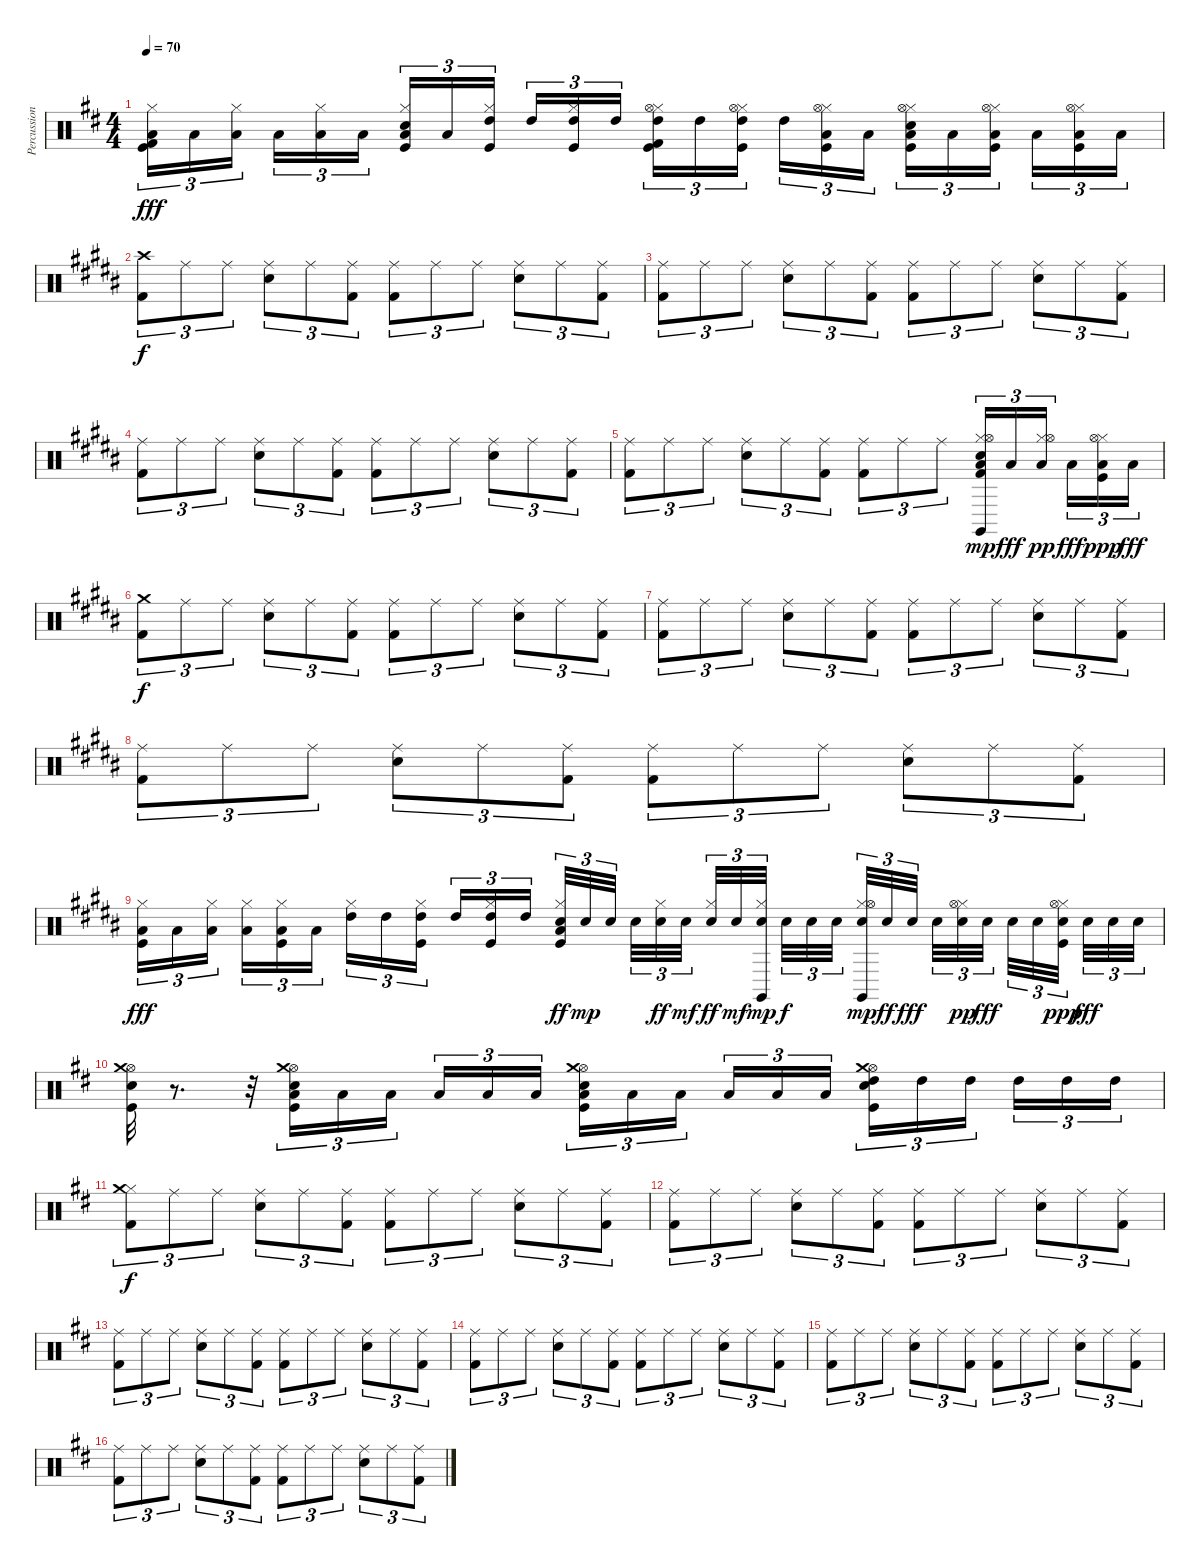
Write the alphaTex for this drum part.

\track ("Percussion" "Percussion") {instrument percussion}
\staff {score}
\articulation defaults
\ts (4 4)
\tempo 70
\clef neutral
\ks bminor
("Kick (hit)" "Low Floor Tom (hit)" "Hi-Hat (closed)" "Kick (hit) 2").16{tu (3 2) dy fff} "Low Floor Tom (hit)".16{tu (3 2)} ("Low Floor Tom (hit)" "Hi-Hat (closed)").16{tu (3 2) beam splitsecondary} "Low Floor Tom (hit)".16{tu (3 2)} ("Hi-Hat (closed)" "Low Tom (hit)").16{tu (3 2)} "Low Tom (hit)".16{tu (3 2)} ("Kick (hit)" "Electric Snare (hit)" "Hi-Hat (closed)" "Low Tom (hit)").16{tu (3 2)} "Low Tom (hit)".16{tu (3 2)} ("Kick (hit)" "Hi-Hat (closed)" "High Tom (hit)").16{tu (3 2) beam splitsecondary} "High Tom (hit)".16{tu (3 2)} ("Kick (hit)" "Hi-Hat (closed)" "High Tom (hit)").16{tu (3 2)} "High Tom (hit)".16{tu (3 2)} ("Kick (hit)" "Hi-Hat (closed)" "Hi-Hat (open)" "High Tom (hit)" "Kick (hit) 2").16{tu (3 2)} "High Tom (hit)".16{tu (3 2)} ("Kick (hit)" "Hi-Hat (closed)" "Hi-Hat (open)" "High Tom (hit)").16{tu (3 2) beam splitsecondary} "High Tom (hit)".16{tu (3 2)} ("Kick (hit)" "Hi-Hat (closed)" "Low Tom (hit)" "Hi-Hat (open)").16{tu (3 2)} "Low Tom (hit)".16{tu (3 2)} ("Kick (hit)" "Electric Snare (hit)" "Hi-Hat (closed)" "Low Tom (hit)" "Hi-Hat (open)").16{tu (3 2)} "Low Tom (hit)".16{tu (3 2)} ("Kick (hit)" "Low Floor Tom (hit)" "Hi-Hat (closed)" "Hi-Hat (open)").16{tu (3 2) beam splitsecondary} "Low Floor Tom (hit)".16{tu (3 2)} ("Kick (hit)" "Low Floor Tom (hit)" "Hi-Hat (closed)" "Hi-Hat (open)").16{tu (3 2)} "Low Floor Tom (hit)".16{tu (3 2)} |
\ks b
("Crash high (hit)" "Kick (hit) 2").8{tu (3 2) dy f} "Ride (middle)".8{tu (3 2)} "Ride (middle)".8{tu (3 2)} ("Snare (hit) 2" "Ride (middle)").8{tu (3 2)} "Ride (middle)".8{tu (3 2)} ("Ride (middle)" "Kick (hit) 2").8{tu (3 2)} ("Ride (middle)" "Kick (hit) 2").8{tu (3 2)} "Ride (middle)".8{tu (3 2)} "Ride (middle)".8{tu (3 2)} ("Snare (hit) 2" "Ride (middle)").8{tu (3 2)} "Ride (middle)".8{tu (3 2)} ("Ride (middle)" "Kick (hit) 2").8{tu (3 2)} |
("Ride (middle)" "Kick (hit) 2").8{tu (3 2)} "Ride (middle)".8{tu (3 2)} "Ride (middle)".8{tu (3 2)} ("Snare (hit) 2" "Ride (middle)").8{tu (3 2)} "Ride (middle)".8{tu (3 2)} ("Ride (middle)" "Kick (hit) 2").8{tu (3 2)} ("Ride (middle)" "Kick (hit) 2").8{tu (3 2)} "Ride (middle)".8{tu (3 2)} "Ride (middle)".8{tu (3 2)} ("Snare (hit) 2" "Ride (middle)").8{tu (3 2)} "Ride (middle)".8{tu (3 2)} ("Ride (middle)" "Kick (hit) 2").8{tu (3 2)} |
("Ride (middle)" "Kick (hit) 2").8{tu (3 2)} "Ride (middle)".8{tu (3 2)} "Ride (middle)".8{tu (3 2)} ("Snare (hit) 2" "Ride (middle)").8{tu (3 2)} "Ride (middle)".8{tu (3 2)} ("Ride (middle)" "Kick (hit) 2").8{tu (3 2)} ("Ride (middle)" "Kick (hit) 2").8{tu (3 2)} "Ride (middle)".8{tu (3 2)} "Ride (middle)".8{tu (3 2)} ("Snare (hit) 2" "Ride (middle)").8{tu (3 2)} "Ride (middle)".8{tu (3 2)} ("Ride (middle)" "Kick (hit) 2").8{tu (3 2)} |
("Ride (middle)" "Kick (hit) 2").8{tu (3 2)} "Ride (middle)".8{tu (3 2)} "Ride (middle)".8{tu (3 2)} ("Snare (hit) 2" "Ride (middle)").8{tu (3 2)} "Ride (middle)".8{tu (3 2)} ("Ride (middle)" "Kick (hit) 2").8{tu (3 2)} ("Ride (middle)" "Kick (hit) 2").8{tu (3 2)} "Ride (middle)".8{tu (3 2)} "Ride (middle)".8{tu (3 2)} ("Electric Snare (hit)" "Hi-Hat (closed)" "Low Tom (hit)" "Hi-Hat (open)" "Claves (hit)" "Kick (hit) 2").16{tu (3 2) dy mp} "Low Tom (hit)".16{tu (3 2) dy fff} ("Hi-Hat (closed)" "Low Tom (hit)" "Hi-Hat (open)").16{tu (3 2) dy pp beam splitsecondary} "Low Tom (hit)".16{tu (3 2) dy fff} ("Kick (hit)" "Hi-Hat (closed)" "Low Tom (hit)" "Hi-Hat (open)").16{tu (3 2) dy ppp} "Low Tom (hit)".16{tu (3 2) dy fff} |
("Kick (hit) 2" "Crash medium (hit)").8{tu (3 2) dy f} "Ride (middle)".8{tu (3 2)} "Ride (middle)".8{tu (3 2)} ("Snare (hit) 2" "Ride (middle)").8{tu (3 2)} "Ride (middle)".8{tu (3 2)} ("Ride (middle)" "Kick (hit) 2").8{tu (3 2)} ("Ride (middle)" "Kick (hit) 2").8{tu (3 2)} "Ride (middle)".8{tu (3 2)} "Ride (middle)".8{tu (3 2)} ("Snare (hit) 2" "Ride (middle)").8{tu (3 2)} "Ride (middle)".8{tu (3 2)} ("Ride (middle)" "Kick (hit) 2").8{tu (3 2)} |
("Ride (middle)" "Kick (hit) 2").8{tu (3 2)} "Ride (middle)".8{tu (3 2)} "Ride (middle)".8{tu (3 2)} ("Snare (hit) 2" "Ride (middle)").8{tu (3 2)} "Ride (middle)".8{tu (3 2)} ("Ride (middle)" "Kick (hit) 2").8{tu (3 2)} ("Ride (middle)" "Kick (hit) 2").8{tu (3 2)} "Ride (middle)".8{tu (3 2)} "Ride (middle)".8{tu (3 2)} ("Snare (hit) 2" "Ride (middle)").8{tu (3 2)} "Ride (middle)".8{tu (3 2)} ("Ride (middle)" "Kick (hit) 2").8{tu (3 2)} |
("Ride (middle)" "Kick (hit) 2").8{tu (3 2)} "Ride (middle)".8{tu (3 2)} "Ride (middle)".8{tu (3 2)} ("Snare (hit) 2" "Ride (middle)").8{tu (3 2)} "Ride (middle)".8{tu (3 2)} ("Ride (middle)" "Kick (hit) 2").8{tu (3 2)} ("Ride (middle)" "Kick (hit) 2").8{tu (3 2)} "Ride (middle)".8{tu (3 2)} "Ride (middle)".8{tu (3 2)} ("Snare (hit) 2" "Ride (middle)").8{tu (3 2)} "Ride (middle)".8{tu (3 2)} ("Ride (middle)" "Kick (hit) 2").8{tu (3 2)} |
("Kick (hit)" "Hi-Hat (closed)" "Low Tom (hit)").16{tu (3 2) dy fff} "Low Tom (hit)".16{tu (3 2)} ("Hi-Hat (closed)" "Low Tom (hit)").16{tu (3 2) beam splitsecondary} ("Hi-Hat (closed)" "Low Tom (hit)").16{tu (3 2)} ("Kick (hit)" "Hi-Hat (closed)" "Low Tom (hit)").16{tu (3 2)} "Low Tom (hit)".16{tu (3 2)} ("Hi-Hat (closed)" "High Tom (hit)").16{tu (3 2)} "High Tom (hit)".16{tu (3 2)} ("Kick (hit)" "Hi-Hat (closed)" "High Tom (hit)").16{tu (3 2) beam splitsecondary} "High Tom (hit)".16{tu (3 2)} ("Kick (hit)" "Hi-Hat (closed)" "High Tom (hit)").16{tu (3 2)} "High Tom (hit)".16{tu (3 2)} ("Kick (hit)" "Electric Snare (hit)" "Low Floor Tom (hit)" "Hi-Hat (closed)").32{tu (3 2) dy ff} "Electric Snare (hit)".32{tu (3 2) dy mp} "Electric Snare (hit)".32{tu (3 2) beam splitsecondary} "Electric Snare (hit)".32{tu (3 2)} ("Electric Snare (hit)" "Hi-Hat (closed)").32{tu (3 2) dy ff} "Electric Snare (hit)".32{tu (3 2) dy mf beam splitsecondary} ("Electric Snare (hit)" "Hi-Hat (closed)").32{tu (3 2) dy ff} "Electric Snare (hit)".32{tu (3 2) dy mf} ("Electric Snare (hit)" "Hi-Hat (closed)" "Claves (hit)").32{tu (3 2) dy mp beam splitsecondary} "Electric Snare (hit)".32{tu (3 2) dy f} "Electric Snare (hit)".32{tu (3 2)} "Electric Snare (hit)".32{tu (3 2)} ("Electric Snare (hit)" "Hi-Hat (closed)" "Hi-Hat (open)" "Claves (hit)").32{tu (3 2) dy mp} "Electric Snare (hit)".32{tu (3 2) dy ff} "Electric Snare (hit)".32{tu (3 2) dy fff beam splitsecondary} "Electric Snare (hit)".32{tu (3 2)} ("Electric Snare (hit)" "Hi-Hat (closed)" "Hi-Hat (open)").32{tu (3 2) dy pp} "Electric Snare (hit)".32{tu (3 2) dy fff beam splitsecondary} "Electric Snare (hit)".32{tu (3 2)} "Electric Snare (hit)".32{tu (3 2)} ("Kick (hit)" "Electric Snare (hit)" "Hi-Hat (closed)" "Hi-Hat (open)").32{tu (3 2) dy ppp beam splitsecondary} "Electric Snare (hit)".32{tu (3 2) dy fff} "Electric Snare (hit)".32{tu (3 2)} "Electric Snare (hit)".32{tu (3 2)} |
\ks bminor
("Kick (hit)" "Electric Snare (hit)" "Hi-Hat (open)" "Crash medium (hit)").32 r.8{d} r.32 ("Kick (hit)" "Electric Snare (hit)" "Low Floor Tom (hit)" "Hi-Hat (open)" "Crash medium (hit)").16{tu (3 2)} "Low Floor Tom (hit)".16{tu (3 2)} "Low Floor Tom (hit)".16{tu (3 2) beam splitsecondary} "Low Floor Tom (hit)".16{tu (3 2)} "Low Floor Tom (hit)".16{tu (3 2)} "Low Floor Tom (hit)".16{tu (3 2)} ("Kick (hit)" "Electric Snare (hit)" "Low Tom (hit)" "Hi-Hat (open)" "Crash medium (hit)").16{tu (3 2)} "Low Tom (hit)".16{tu (3 2)} "Low Tom (hit)".16{tu (3 2) beam splitsecondary} "Low Tom (hit)".16{tu (3 2)} "Low Tom (hit)".16{tu (3 2)} "Low Tom (hit)".16{tu (3 2)} ("Kick (hit)" "Electric Snare (hit)" "Hi-Hat (open)" "High Tom (hit)" "Crash medium (hit)").16{tu (3 2)} "High Tom (hit)".16{tu (3 2)} "High Tom (hit)".16{tu (3 2) beam splitsecondary} "High Tom (hit)".16{tu (3 2)} "High Tom (hit)".16{tu (3 2)} "High Tom (hit)".16{tu (3 2)} |
("Hi-Hat (closed)" "Crash medium (hit)" "Kick (hit) 2").8{tu (3 2) dy f} "Ride (middle)".8{tu (3 2)} "Ride (middle)".8{tu (3 2)} ("Snare (hit) 2" "Ride (middle)").8{tu (3 2)} "Ride (middle)".8{tu (3 2)} ("Ride (middle)" "Kick (hit) 2").8{tu (3 2)} ("Ride (middle)" "Kick (hit) 2").8{tu (3 2)} "Ride (middle)".8{tu (3 2)} "Ride (middle)".8{tu (3 2)} ("Snare (hit) 2" "Ride (middle)").8{tu (3 2)} "Ride (middle)".8{tu (3 2)} ("Ride (middle)" "Kick (hit) 2").8{tu (3 2)} |
("Ride (middle)" "Kick (hit) 2").8{tu (3 2)} "Ride (middle)".8{tu (3 2)} "Ride (middle)".8{tu (3 2)} ("Snare (hit) 2" "Ride (middle)").8{tu (3 2)} "Ride (middle)".8{tu (3 2)} ("Ride (middle)" "Kick (hit) 2").8{tu (3 2)} ("Ride (middle)" "Kick (hit) 2").8{tu (3 2)} "Ride (middle)".8{tu (3 2)} "Ride (middle)".8{tu (3 2)} ("Snare (hit) 2" "Ride (middle)").8{tu (3 2)} "Ride (middle)".8{tu (3 2)} ("Ride (middle)" "Kick (hit) 2").8{tu (3 2)} |
("Ride (middle)" "Kick (hit) 2").8{tu (3 2)} "Ride (middle)".8{tu (3 2)} "Ride (middle)".8{tu (3 2)} ("Snare (hit) 2" "Ride (middle)").8{tu (3 2)} "Ride (middle)".8{tu (3 2)} ("Ride (middle)" "Kick (hit) 2").8{tu (3 2)} ("Ride (middle)" "Kick (hit) 2").8{tu (3 2)} "Ride (middle)".8{tu (3 2)} "Ride (middle)".8{tu (3 2)} ("Snare (hit) 2" "Ride (middle)").8{tu (3 2)} "Ride (middle)".8{tu (3 2)} ("Ride (middle)" "Kick (hit) 2").8{tu (3 2)} |
("Ride (middle)" "Kick (hit) 2").8{tu (3 2)} "Ride (middle)".8{tu (3 2)} "Ride (middle)".8{tu (3 2)} ("Snare (hit) 2" "Ride (middle)").8{tu (3 2)} "Ride (middle)".8{tu (3 2)} ("Ride (middle)" "Kick (hit) 2").8{tu (3 2)} ("Ride (middle)" "Kick (hit) 2").8{tu (3 2)} "Ride (middle)".8{tu (3 2)} "Ride (middle)".8{tu (3 2)} ("Snare (hit) 2" "Ride (middle)").8{tu (3 2)} "Ride (middle)".8{tu (3 2)} ("Ride (middle)" "Kick (hit) 2").8{tu (3 2)} |
("Ride (middle)" "Kick (hit) 2").8{tu (3 2)} "Ride (middle)".8{tu (3 2)} "Ride (middle)".8{tu (3 2)} ("Snare (hit) 2" "Ride (middle)").8{tu (3 2)} "Ride (middle)".8{tu (3 2)} ("Ride (middle)" "Kick (hit) 2").8{tu (3 2)} ("Ride (middle)" "Kick (hit) 2").8{tu (3 2)} "Ride (middle)".8{tu (3 2)} "Ride (middle)".8{tu (3 2)} ("Snare (hit) 2" "Ride (middle)").8{tu (3 2)} "Ride (middle)".8{tu (3 2)} ("Ride (middle)" "Kick (hit) 2").8{tu (3 2)} |
("Ride (middle)" "Kick (hit) 2").8{tu (3 2)} "Ride (middle)".8{tu (3 2)} "Ride (middle)".8{tu (3 2)} ("Snare (hit) 2" "Ride (middle)").8{tu (3 2)} "Ride (middle)".8{tu (3 2)} ("Ride (middle)" "Kick (hit) 2").8{tu (3 2)} ("Ride (middle)" "Kick (hit) 2").8{tu (3 2)} "Ride (middle)".8{tu (3 2)} "Ride (middle)".8{tu (3 2)} ("Snare (hit) 2" "Ride (middle)").8{tu (3 2)} "Ride (middle)".8{tu (3 2)} ("Ride (middle)" "Kick (hit) 2").8{tu (3 2)}
